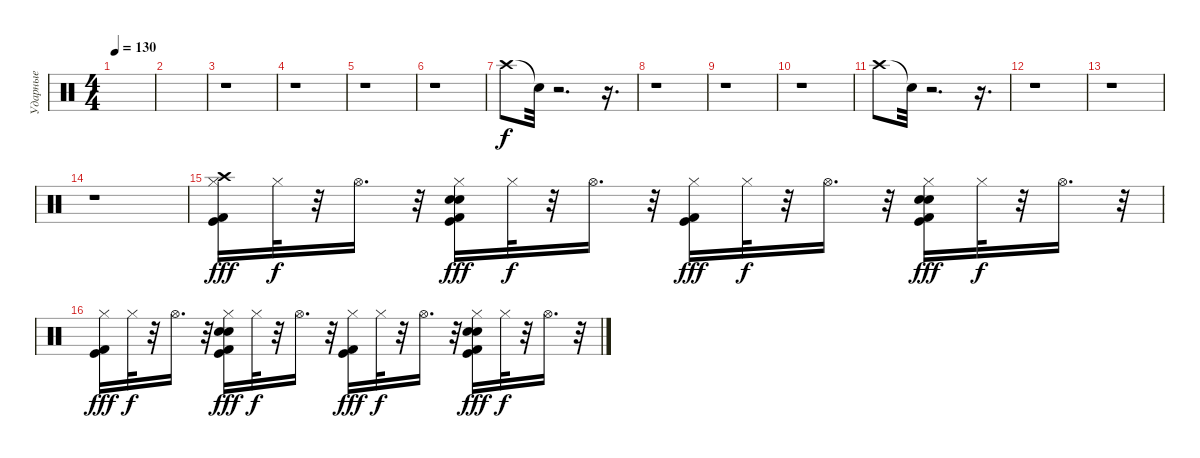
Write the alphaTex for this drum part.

\track ("Ударные" "Ударные") {instrument percussion}
\staff {score}
\articulation defaults
\ts (4 4)
\tempo 130
\clef neutral
\ks c
|
|
r.1 |
r.1 |
r.1 |
r.1 |
"Crash high (hit)".8 "Snare (hit)"{t}.32 r.2{d} r.16{d} |
r.1 |
r.1 |
r.1 |
"Crash high (hit)".8 "Snare (hit)"{t}.32 r.2{d} r.16{d} |
r.1 |
r.1 |
r.1 |
("Crash high (hit)" "Hi-Hat (closed)" "Kick (hit) 2" "Kick (hit)").16{dy fff} "Hi-Hat (closed)".32{dy f} r.32 "Hi-Hat (open)".16{d} r.32 ("Hi-Hat (closed)" "Kick (hit) 2" "Kick (hit)" "Hand Clap (hit)" "Hand Clap (hit)").16{dy fff} "Hi-Hat (closed)".32{dy f} r.32 "Hi-Hat (open)".16{d} r.32 ("Hi-Hat (closed)" "Kick (hit) 2" "Kick (hit)").16{dy fff} "Hi-Hat (closed)".32{dy f} r.32 "Hi-Hat (open)".16{d} r.32 ("Hi-Hat (closed)" "Kick (hit) 2" "Kick (hit)" "Hand Clap (hit)" "Hand Clap (hit)").16{dy fff} "Hi-Hat (closed)".32{dy f} r.32 "Hi-Hat (open)".16{d} r.32 |
("Hi-Hat (closed)" "Kick (hit) 2" "Kick (hit)").16{dy fff} "Hi-Hat (closed)".32{dy f} r.32 "Hi-Hat (open)".16{d} r.32 ("Hi-Hat (closed)" "Kick (hit) 2" "Kick (hit)" "Hand Clap (hit)" "Hand Clap (hit)").16{dy fff} "Hi-Hat (closed)".32{dy f} r.32 "Hi-Hat (open)".16{d} r.32 ("Hi-Hat (closed)" "Kick (hit) 2" "Kick (hit)").16{dy fff} "Hi-Hat (closed)".32{dy f} r.32 "Hi-Hat (open)".16{d} r.32 ("Hi-Hat (closed)" "Kick (hit) 2" "Kick (hit)" "Hand Clap (hit)" "Hand Clap (hit)").16{dy fff} "Hi-Hat (closed)".32{dy f} r.32 "Hi-Hat (open)".16{d} r.32
